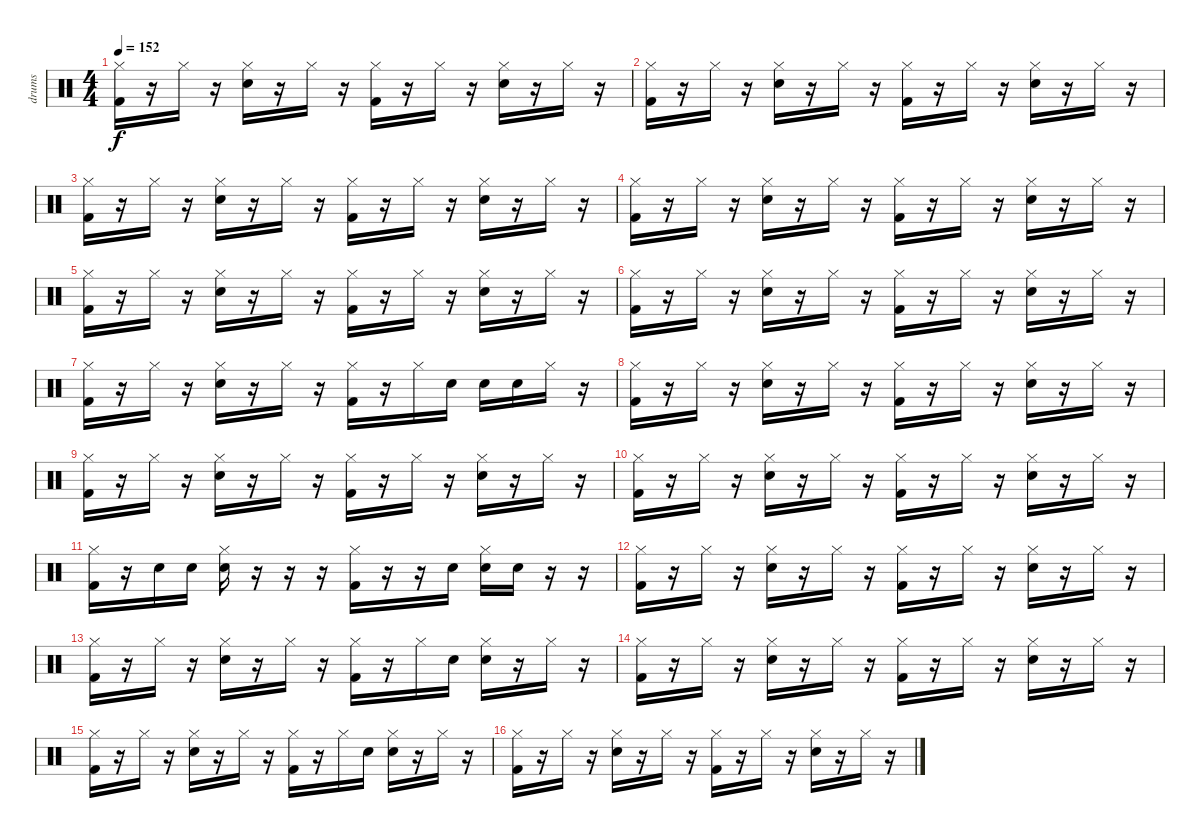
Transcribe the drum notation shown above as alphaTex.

\track ("drums" "drums") {instrument percussion}
\staff {score}
\articulation defaults
\ts (4 4)
\tempo 152
\clef neutral
\ks c
("Hi-Hat (closed)" "Kick (hit) 2").16{dy f} r.16 "Hi-Hat (closed)".16 r.16 ("Hi-Hat (closed)" "Electric Snare (hit)").16 r.16 "Hi-Hat (closed)".16 r.16 ("Hi-Hat (closed)" "Kick (hit) 2").16 r.16 "Hi-Hat (closed)".16 r.16 ("Hi-Hat (closed)" "Electric Snare (hit)").16 r.16 "Hi-Hat (closed)".16 r.16 |
("Hi-Hat (closed)" "Kick (hit) 2").16 r.16 "Hi-Hat (closed)".16 r.16 ("Hi-Hat (closed)" "Electric Snare (hit)").16 r.16 "Hi-Hat (closed)".16 r.16 ("Hi-Hat (closed)" "Kick (hit) 2").16 r.16 "Hi-Hat (closed)".16 r.16 ("Hi-Hat (closed)" "Electric Snare (hit)").16 r.16 "Hi-Hat (closed)".16 r.16 |
("Hi-Hat (closed)" "Kick (hit) 2").16 r.16 "Hi-Hat (closed)".16 r.16 ("Hi-Hat (closed)" "Electric Snare (hit)").16 r.16 "Hi-Hat (closed)".16 r.16 ("Hi-Hat (closed)" "Kick (hit) 2").16 r.16 "Hi-Hat (closed)".16 r.16 ("Hi-Hat (closed)" "Electric Snare (hit)").16 r.16 "Hi-Hat (closed)".16 r.16 |
("Hi-Hat (closed)" "Kick (hit) 2").16 r.16 "Hi-Hat (closed)".16 r.16 ("Hi-Hat (closed)" "Electric Snare (hit)").16 r.16 "Hi-Hat (closed)".16 r.16 ("Hi-Hat (closed)" "Kick (hit) 2").16 r.16 "Hi-Hat (closed)".16 r.16 ("Hi-Hat (closed)" "Electric Snare (hit)").16 r.16 "Hi-Hat (closed)".16 r.16 |
("Hi-Hat (closed)" "Kick (hit) 2").16 r.16 "Hi-Hat (closed)".16 r.16 ("Hi-Hat (closed)" "Electric Snare (hit)").16 r.16 "Hi-Hat (closed)".16 r.16 ("Hi-Hat (closed)" "Kick (hit) 2").16 r.16 "Hi-Hat (closed)".16 r.16 ("Hi-Hat (closed)" "Electric Snare (hit)").16 r.16 "Hi-Hat (closed)".16 r.16 |
("Hi-Hat (closed)" "Kick (hit) 2").16 r.16 "Hi-Hat (closed)".16 r.16 ("Hi-Hat (closed)" "Electric Snare (hit)").16 r.16 "Hi-Hat (closed)".16 r.16 ("Hi-Hat (closed)" "Kick (hit) 2").16 r.16 "Hi-Hat (closed)".16 r.16 ("Hi-Hat (closed)" "Electric Snare (hit)").16 r.16 "Hi-Hat (closed)".16 r.16 |
("Hi-Hat (closed)" "Kick (hit) 2").16 r.16 "Hi-Hat (closed)".16 r.16 ("Hi-Hat (closed)" "Electric Snare (hit)").16 r.16 "Hi-Hat (closed)".16 r.16 ("Hi-Hat (closed)" "Kick (hit) 2").16 r.16 "Hi-Hat (closed)".16 "Electric Snare (hit)".16 "Electric Snare (hit)".16 "Electric Snare (hit)".16 "Hi-Hat (closed)".16 r.16 |
("Hi-Hat (closed)" "Kick (hit) 2").16 r.16 "Hi-Hat (closed)".16 r.16 ("Hi-Hat (closed)" "Electric Snare (hit)").16 r.16 "Hi-Hat (closed)".16 r.16 ("Hi-Hat (closed)" "Kick (hit) 2").16 r.16 "Hi-Hat (closed)".16 r.16 ("Hi-Hat (closed)" "Electric Snare (hit)").16 r.16 "Hi-Hat (closed)".16 r.16 |
("Hi-Hat (closed)" "Kick (hit) 2").16 r.16 "Hi-Hat (closed)".16 r.16 ("Hi-Hat (closed)" "Electric Snare (hit)").16 r.16 "Hi-Hat (closed)".16 r.16 ("Hi-Hat (closed)" "Kick (hit) 2").16 r.16 "Hi-Hat (closed)".16 r.16 ("Hi-Hat (closed)" "Electric Snare (hit)").16 r.16 "Hi-Hat (closed)".16 r.16 |
("Hi-Hat (closed)" "Kick (hit) 2").16 r.16 "Hi-Hat (closed)".16 r.16 ("Hi-Hat (closed)" "Electric Snare (hit)").16 r.16 "Hi-Hat (closed)".16 r.16 ("Hi-Hat (closed)" "Kick (hit) 2").16 r.16 "Hi-Hat (closed)".16 r.16 ("Hi-Hat (closed)" "Electric Snare (hit)").16 r.16 "Hi-Hat (closed)".16 r.16 |
("Hi-Hat (closed)" "Kick (hit) 2").16 r.16 "Electric Snare (hit)".16 "Electric Snare (hit)".16 ("Hi-Hat (closed)" "Electric Snare (hit)").16 r.16 r.16 r.16 ("Hi-Hat (closed)" "Kick (hit) 2").16 r.16 r.16 "Electric Snare (hit)".16 ("Hi-Hat (closed)" "Electric Snare (hit)").16 "Electric Snare (hit)".16 r.16 r.16 |
("Hi-Hat (closed)" "Kick (hit) 2").16 r.16 "Hi-Hat (closed)".16 r.16 ("Hi-Hat (closed)" "Electric Snare (hit)").16 r.16 "Hi-Hat (closed)".16 r.16 ("Hi-Hat (closed)" "Kick (hit) 2").16 r.16 "Hi-Hat (closed)".16 r.16 ("Hi-Hat (closed)" "Electric Snare (hit)").16 r.16 "Hi-Hat (closed)".16 r.16 |
("Hi-Hat (closed)" "Kick (hit) 2").16 r.16 "Hi-Hat (closed)".16 r.16 ("Hi-Hat (closed)" "Electric Snare (hit)").16 r.16 "Hi-Hat (closed)".16 r.16 ("Hi-Hat (closed)" "Kick (hit) 2").16 r.16 "Hi-Hat (closed)".16 "Electric Snare (hit)".16 ("Hi-Hat (closed)" "Electric Snare (hit)").16 r.16 "Hi-Hat (closed)".16 r.16 |
("Hi-Hat (closed)" "Kick (hit) 2").16 r.16 "Hi-Hat (closed)".16 r.16 ("Hi-Hat (closed)" "Electric Snare (hit)").16 r.16 "Hi-Hat (closed)".16 r.16 ("Hi-Hat (closed)" "Kick (hit) 2").16 r.16 "Hi-Hat (closed)".16 r.16 ("Hi-Hat (closed)" "Electric Snare (hit)").16 r.16 "Hi-Hat (closed)".16 r.16 |
("Hi-Hat (closed)" "Kick (hit) 2").16 r.16 "Hi-Hat (closed)".16 r.16 ("Hi-Hat (closed)" "Electric Snare (hit)").16 r.16 "Hi-Hat (closed)".16 r.16 ("Hi-Hat (closed)" "Kick (hit) 2").16 r.16 "Hi-Hat (closed)".16 "Electric Snare (hit)".16 ("Hi-Hat (closed)" "Electric Snare (hit)").16 r.16 "Hi-Hat (closed)".16 r.16 |
("Hi-Hat (closed)" "Kick (hit) 2").16 r.16 "Hi-Hat (closed)".16 r.16 ("Hi-Hat (closed)" "Electric Snare (hit)").16 r.16 "Hi-Hat (closed)".16 r.16 ("Hi-Hat (closed)" "Kick (hit) 2").16 r.16 "Hi-Hat (closed)".16 r.16 ("Hi-Hat (closed)" "Electric Snare (hit)").16 r.16 "Hi-Hat (closed)".16 r.16
